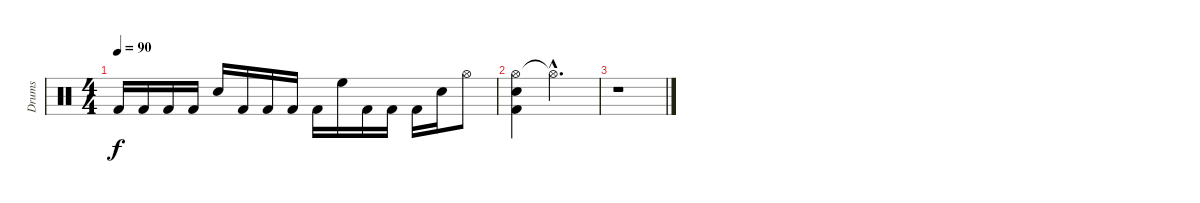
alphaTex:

\track ("Drums" "Drums") {instrument percussion}
\staff {score}
\articulation defaults
\ts (4 4)
\tempo 90
\clef neutral
\ks c "Kick (hit) 2".16{dy f} "Kick (hit) 2".16 "Kick (hit) 2".16 "Kick (hit) 2".16 "Electric Snare (hit)".16 "Kick (hit) 2".16 "Kick (hit) 2".16 "Kick (hit) 2".16 "Kick (hit) 2".16 "High Floor Tom (hit)".16 "Kick (hit) 2".16 "Kick (hit) 2".16 "Kick (hit) 2".16 "Electric Snare (hit)".16 "Hi-Hat (open)".8
|
("Hi-Hat (open)" "Electric Snare (hit)" "Kick (hit) 2").4 "Hi-Hat (open)"{hac t}.2{d} |
r.1
